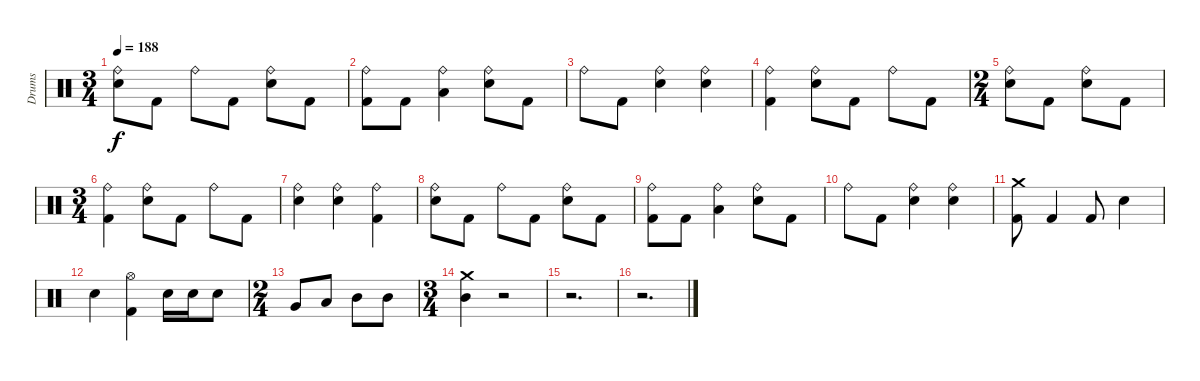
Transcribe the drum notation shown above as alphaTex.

\track ("Drums" "Drums") {instrument percussion}
\staff {score}
\articulation defaults
\ts (3 4)
\tempo 188
\clef neutral
\ks c
("Electric Snare (hit)" "Ride (bell)").8{dy f} "Kick (hit) 2".8 "Ride (bell)".8 "Kick (hit) 2".8 ("Electric Snare (hit)" "Ride (bell)").8 "Kick (hit) 2".8 |
("Ride (bell)" "Kick (hit) 2").8 "Kick (hit) 2".8 ("Ride (bell)" "Low Tom (hit)").4 ("Electric Snare (hit)" "Ride (bell)").8 "Kick (hit) 2".8 |
"Ride (bell)".8 "Kick (hit) 2".8 ("Electric Snare (hit)" "Ride (bell)").4 ("Electric Snare (hit)" "Ride (bell)").4 |
("Ride (bell)" "Kick (hit) 2").4 ("Electric Snare (hit)" "Ride (bell)").8 "Kick (hit) 2".8 "Ride (bell)".8 "Kick (hit) 2".8 |
\ts (2 4)
("Electric Snare (hit)" "Ride (bell)").8 "Kick (hit) 2".8 ("Electric Snare (hit)" "Ride (bell)").8 "Kick (hit) 2".8 |
\ts (3 4)
("Ride (bell)" "Kick (hit) 2").4 ("Electric Snare (hit)" "Ride (bell)").8 "Kick (hit) 2".8 "Ride (bell)".8 "Kick (hit) 2".8 |
("Electric Snare (hit)" "Ride (bell)").4 ("Electric Snare (hit)" "Ride (bell)").4 ("Ride (bell)" "Kick (hit) 2").4 |
("Electric Snare (hit)" "Ride (bell)").8 "Kick (hit) 2".8 "Ride (bell)".8 "Kick (hit) 2".8 ("Electric Snare (hit)" "Ride (bell)").8 "Kick (hit) 2".8 |
("Ride (bell)" "Kick (hit) 2").8 "Kick (hit) 2".8 ("Ride (bell)" "Low Tom (hit)").4 ("Electric Snare (hit)" "Ride (bell)").8 "Kick (hit) 2".8 |
"Ride (bell)".8 "Kick (hit) 2".8 ("Electric Snare (hit)" "Ride (bell)").4 ("Electric Snare (hit)" "Ride (bell)").4 |
("Crash medium (hit)" "Kick (hit) 2").8 "Kick (hit) 2".4 "Kick (hit) 2".8 "Electric Snare (hit)".4 |
"Electric Snare (hit)".4 ("Hi-Hat (open)" "Kick (hit) 2").4 "Electric Snare (hit)".16 "Electric Snare (hit)".16 "Electric Snare (hit)".8 |
\ts (2 4)
"Very Low Tom (hit)".8 "Low Tom (hit)".8 "Mid Tom (hit)".8 "Mid Tom (hit)".8 |
\ts (3 4)
("Crash medium (hit)" "Mid Tom (hit)").4 r.2 |
r.2{d} |
r.2{d}
